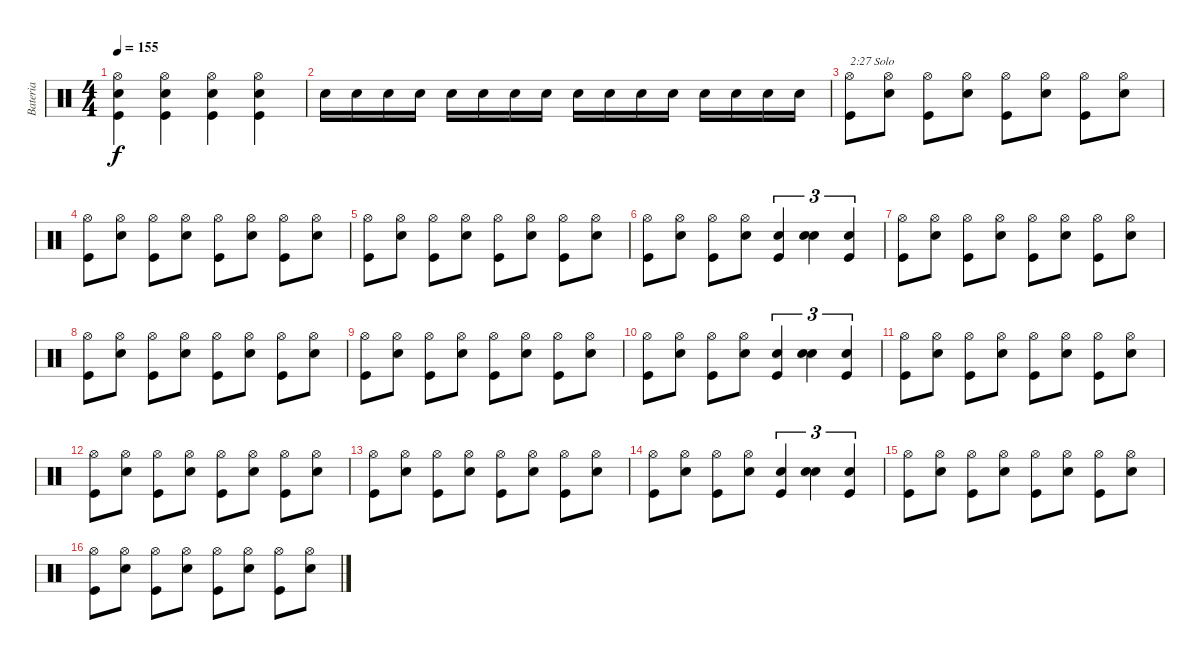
\track ("Bateria" "Bateria") {instrument percussion}
\staff {score}
\articulation defaults
\ts (4 4)
\tempo 155
\clef neutral
\ks c
("Kick (hit)" "Snare (hit) 2" "Hi-Hat (open)").4{dy f} ("Kick (hit)" "Snare (hit) 2" "Hi-Hat (open)").4 ("Kick (hit)" "Snare (hit) 2" "Hi-Hat (open)").4 ("Kick (hit)" "Snare (hit) 2" "Hi-Hat (open)").4 |
"Snare (hit) 2".16 "Snare (hit) 2".16 "Snare (hit) 2".16 "Snare (hit) 2".16 "Snare (hit) 2".16 "Snare (hit) 2".16 "Snare (hit) 2".16 "Snare (hit) 2".16 "Snare (hit) 2".16 "Snare (hit) 2".16 "Snare (hit) 2".16 "Snare (hit) 2".16 "Snare (hit) 2".16 "Snare (hit) 2".16 "Snare (hit) 2".16 "Snare (hit) 2".16 |
("Kick (hit)" "Hi-Hat (open)").8{txt "2:27 Solo"} ("Snare (hit) 2" "Hi-Hat (open)").8 ("Kick (hit)" "Hi-Hat (open)").8 ("Snare (hit) 2" "Hi-Hat (open)").8 ("Kick (hit)" "Hi-Hat (open)").8 ("Snare (hit) 2" "Hi-Hat (open)").8 ("Kick (hit)" "Hi-Hat (open)").8 ("Snare (hit) 2" "Hi-Hat (open)").8 |
("Kick (hit)" "Hi-Hat (open)").8 ("Snare (hit) 2" "Hi-Hat (open)").8 ("Kick (hit)" "Hi-Hat (open)").8 ("Snare (hit) 2" "Hi-Hat (open)").8 ("Kick (hit)" "Hi-Hat (open)").8 ("Snare (hit) 2" "Hi-Hat (open)").8 ("Kick (hit)" "Hi-Hat (open)").8 ("Snare (hit) 2" "Hi-Hat (open)").8 |
("Kick (hit)" "Hi-Hat (open)").8 ("Snare (hit) 2" "Hi-Hat (open)").8 ("Kick (hit)" "Hi-Hat (open)").8 ("Snare (hit) 2" "Hi-Hat (open)").8 ("Kick (hit)" "Hi-Hat (open)").8 ("Snare (hit) 2" "Hi-Hat (open)").8 ("Kick (hit)" "Hi-Hat (open)").8 ("Snare (hit) 2" "Hi-Hat (open)").8 |
("Kick (hit)" "Hi-Hat (open)").8 ("Snare (hit) 2" "Hi-Hat (open)").8 ("Kick (hit)" "Hi-Hat (open)").8 ("Snare (hit) 2" "Hi-Hat (open)").8 ("Kick (hit)" "Snare (hit) 2").4{tu (3 2)} ("Snare (hit) 2" "Snare (hit) 2").4{tu (3 2)} ("Kick (hit)" "Snare (hit) 2").4{tu (3 2)} |
("Kick (hit)" "Hi-Hat (open)").8 ("Snare (hit) 2" "Hi-Hat (open)").8 ("Kick (hit)" "Hi-Hat (open)").8 ("Snare (hit) 2" "Hi-Hat (open)").8 ("Kick (hit)" "Hi-Hat (open)").8 ("Snare (hit) 2" "Hi-Hat (open)").8 ("Kick (hit)" "Hi-Hat (open)").8 ("Snare (hit) 2" "Hi-Hat (open)").8 |
("Kick (hit)" "Hi-Hat (open)").8 ("Snare (hit) 2" "Hi-Hat (open)").8 ("Kick (hit)" "Hi-Hat (open)").8 ("Snare (hit) 2" "Hi-Hat (open)").8 ("Kick (hit)" "Hi-Hat (open)").8 ("Snare (hit) 2" "Hi-Hat (open)").8 ("Kick (hit)" "Hi-Hat (open)").8 ("Snare (hit) 2" "Hi-Hat (open)").8 |
("Kick (hit)" "Hi-Hat (open)").8 ("Snare (hit) 2" "Hi-Hat (open)").8 ("Kick (hit)" "Hi-Hat (open)").8 ("Snare (hit) 2" "Hi-Hat (open)").8 ("Kick (hit)" "Hi-Hat (open)").8 ("Snare (hit) 2" "Hi-Hat (open)").8 ("Kick (hit)" "Hi-Hat (open)").8 ("Snare (hit) 2" "Hi-Hat (open)").8 |
("Kick (hit)" "Hi-Hat (open)").8 ("Snare (hit) 2" "Hi-Hat (open)").8 ("Kick (hit)" "Hi-Hat (open)").8 ("Snare (hit) 2" "Hi-Hat (open)").8 ("Kick (hit)" "Snare (hit) 2").4{tu (3 2)} ("Snare (hit) 2" "Snare (hit) 2").4{tu (3 2)} ("Kick (hit)" "Snare (hit) 2").4{tu (3 2)} |
("Kick (hit)" "Hi-Hat (open)").8 ("Snare (hit) 2" "Hi-Hat (open)").8 ("Kick (hit)" "Hi-Hat (open)").8 ("Snare (hit) 2" "Hi-Hat (open)").8 ("Kick (hit)" "Hi-Hat (open)").8 ("Snare (hit) 2" "Hi-Hat (open)").8 ("Kick (hit)" "Hi-Hat (open)").8 ("Snare (hit) 2" "Hi-Hat (open)").8 |
("Kick (hit)" "Hi-Hat (open)").8 ("Snare (hit) 2" "Hi-Hat (open)").8 ("Kick (hit)" "Hi-Hat (open)").8 ("Snare (hit) 2" "Hi-Hat (open)").8 ("Kick (hit)" "Hi-Hat (open)").8 ("Snare (hit) 2" "Hi-Hat (open)").8 ("Kick (hit)" "Hi-Hat (open)").8 ("Snare (hit) 2" "Hi-Hat (open)").8 |
("Kick (hit)" "Hi-Hat (open)").8 ("Snare (hit) 2" "Hi-Hat (open)").8 ("Kick (hit)" "Hi-Hat (open)").8 ("Snare (hit) 2" "Hi-Hat (open)").8 ("Kick (hit)" "Hi-Hat (open)").8 ("Snare (hit) 2" "Hi-Hat (open)").8 ("Kick (hit)" "Hi-Hat (open)").8 ("Snare (hit) 2" "Hi-Hat (open)").8 |
("Kick (hit)" "Hi-Hat (open)").8 ("Snare (hit) 2" "Hi-Hat (open)").8 ("Kick (hit)" "Hi-Hat (open)").8 ("Snare (hit) 2" "Hi-Hat (open)").8 ("Kick (hit)" "Snare (hit) 2").4{tu (3 2)} ("Snare (hit) 2" "Snare (hit) 2").4{tu (3 2)} ("Kick (hit)" "Snare (hit) 2").4{tu (3 2)} |
("Kick (hit)" "Hi-Hat (open)").8 ("Snare (hit) 2" "Hi-Hat (open)").8 ("Kick (hit)" "Hi-Hat (open)").8 ("Snare (hit) 2" "Hi-Hat (open)").8 ("Kick (hit)" "Hi-Hat (open)").8 ("Snare (hit) 2" "Hi-Hat (open)").8 ("Kick (hit)" "Hi-Hat (open)").8 ("Snare (hit) 2" "Hi-Hat (open)").8 |
("Kick (hit)" "Hi-Hat (open)").8 ("Snare (hit) 2" "Hi-Hat (open)").8 ("Kick (hit)" "Hi-Hat (open)").8 ("Snare (hit) 2" "Hi-Hat (open)").8 ("Kick (hit)" "Hi-Hat (open)").8 ("Snare (hit) 2" "Hi-Hat (open)").8 ("Kick (hit)" "Hi-Hat (open)").8 ("Snare (hit) 2" "Hi-Hat (open)").8
